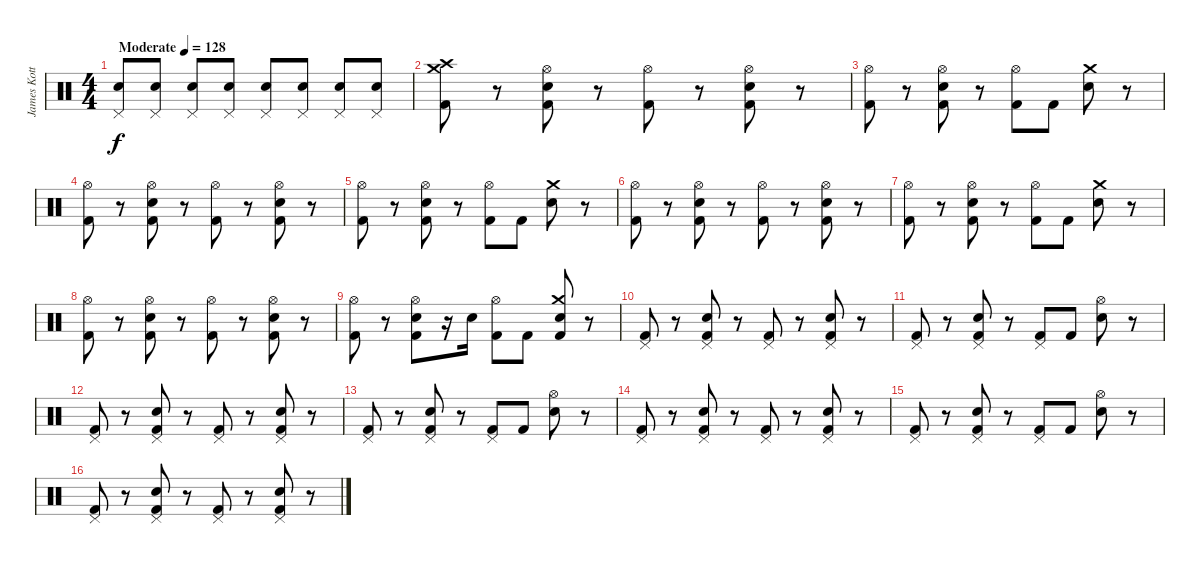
\track ("James Kottak" "James Kott") {instrument percussion}
\staff {score}
\articulation defaults
\ts (4 4)
\tempo (128 "Moderate")
\clef neutral
\ks c
("Pedal Hi-Hat (hit)" "Electric Snare (hit)").8{dy f} ("Pedal Hi-Hat (hit)" "Electric Snare (hit)").8 ("Pedal Hi-Hat (hit)" "Electric Snare (hit)").8 ("Pedal Hi-Hat (hit)" "Electric Snare (hit)").8 ("Pedal Hi-Hat (hit)" "Electric Snare (hit)").8 ("Pedal Hi-Hat (hit)" "Electric Snare (hit)").8 ("Pedal Hi-Hat (hit)" "Electric Snare (hit)").8 ("Pedal Hi-Hat (hit)" "Electric Snare (hit)").8 |
("Crash medium (hit)" "Crash high (hit)" "Kick (hit) 2").8 r.8 ("Hi-Hat (open)" "Electric Snare (hit)" "Kick (hit) 2").8 r.8 ("Hi-Hat (open)" "Kick (hit) 2").8 r.8 ("Hi-Hat (open)" "Electric Snare (hit)" "Kick (hit) 2").8 r.8 |
("Hi-Hat (open)" "Kick (hit) 2").8 r.8 ("Hi-Hat (open)" "Electric Snare (hit)" "Kick (hit) 2").8 r.8 ("Hi-Hat (open)" "Kick (hit) 2").8 "Kick (hit) 2".8 ("Crash medium (hit)" "Electric Snare (hit)").8 r.8 |
("Hi-Hat (open)" "Kick (hit) 2").8 r.8 ("Hi-Hat (open)" "Electric Snare (hit)" "Kick (hit) 2").8 r.8 ("Hi-Hat (open)" "Kick (hit) 2").8 r.8 ("Hi-Hat (open)" "Electric Snare (hit)" "Kick (hit) 2").8 r.8 |
("Hi-Hat (open)" "Kick (hit) 2").8 r.8 ("Hi-Hat (open)" "Electric Snare (hit)" "Kick (hit) 2").8 r.8 ("Hi-Hat (open)" "Kick (hit) 2").8 "Kick (hit) 2".8 ("Crash medium (hit)" "Electric Snare (hit)").8 r.8 |
("Hi-Hat (open)" "Kick (hit) 2").8 r.8 ("Hi-Hat (open)" "Electric Snare (hit)" "Kick (hit) 2").8 r.8 ("Hi-Hat (open)" "Kick (hit) 2").8 r.8 ("Hi-Hat (open)" "Electric Snare (hit)" "Kick (hit) 2").8 r.8 |
("Hi-Hat (open)" "Kick (hit) 2").8 r.8 ("Hi-Hat (open)" "Electric Snare (hit)" "Kick (hit) 2").8 r.8 ("Hi-Hat (open)" "Kick (hit) 2").8 "Kick (hit) 2".8 ("Crash medium (hit)" "Electric Snare (hit)").8 r.8 |
("Hi-Hat (open)" "Kick (hit) 2").8 r.8 ("Hi-Hat (open)" "Electric Snare (hit)" "Kick (hit) 2").8 r.8 ("Hi-Hat (open)" "Kick (hit) 2").8 r.8 ("Hi-Hat (open)" "Electric Snare (hit)" "Kick (hit) 2").8 r.8 |
("Hi-Hat (open)" "Kick (hit) 2").8 r.8 ("Hi-Hat (open)" "Electric Snare (hit)" "Kick (hit) 2").8 r.16 "Electric Snare (hit)".16 ("Hi-Hat (open)" "Kick (hit) 2").8 "Kick (hit) 2".8 ("Crash medium (hit)" "Electric Snare (hit)" "Kick (hit) 2").8 r.8 |
("Pedal Hi-Hat (hit)" "Kick (hit) 2").8 r.8 ("Pedal Hi-Hat (hit)" "Electric Snare (hit)" "Kick (hit) 2").8 r.8 ("Pedal Hi-Hat (hit)" "Kick (hit) 2").8 r.8 ("Pedal Hi-Hat (hit)" "Electric Snare (hit)" "Kick (hit) 2").8 r.8 |
("Pedal Hi-Hat (hit)" "Kick (hit) 2").8 r.8 ("Pedal Hi-Hat (hit)" "Electric Snare (hit)" "Kick (hit) 2").8 r.8 ("Pedal Hi-Hat (hit)" "Kick (hit) 2").8 "Kick (hit) 2".8 ("Hi-Hat (open)" "Electric Snare (hit)").8 r.8 |
("Pedal Hi-Hat (hit)" "Kick (hit) 2").8 r.8 ("Pedal Hi-Hat (hit)" "Electric Snare (hit)" "Kick (hit) 2").8 r.8 ("Pedal Hi-Hat (hit)" "Kick (hit) 2").8 r.8 ("Pedal Hi-Hat (hit)" "Electric Snare (hit)" "Kick (hit) 2").8 r.8 |
("Pedal Hi-Hat (hit)" "Kick (hit) 2").8 r.8 ("Pedal Hi-Hat (hit)" "Electric Snare (hit)" "Kick (hit) 2").8 r.8 ("Pedal Hi-Hat (hit)" "Kick (hit) 2").8 "Kick (hit) 2".8 ("Hi-Hat (open)" "Electric Snare (hit)").8 r.8 |
("Pedal Hi-Hat (hit)" "Kick (hit) 2").8 r.8 ("Pedal Hi-Hat (hit)" "Electric Snare (hit)" "Kick (hit) 2").8 r.8 ("Pedal Hi-Hat (hit)" "Kick (hit) 2").8 r.8 ("Pedal Hi-Hat (hit)" "Electric Snare (hit)" "Kick (hit) 2").8 r.8 |
("Pedal Hi-Hat (hit)" "Kick (hit) 2").8 r.8 ("Pedal Hi-Hat (hit)" "Electric Snare (hit)" "Kick (hit) 2").8 r.8 ("Pedal Hi-Hat (hit)" "Kick (hit) 2").8 "Kick (hit) 2".8 ("Hi-Hat (open)" "Electric Snare (hit)").8 r.8 |
("Pedal Hi-Hat (hit)" "Kick (hit) 2").8 r.8 ("Pedal Hi-Hat (hit)" "Electric Snare (hit)" "Kick (hit) 2").8 r.8 ("Pedal Hi-Hat (hit)" "Kick (hit) 2").8 r.8 ("Pedal Hi-Hat (hit)" "Electric Snare (hit)" "Kick (hit) 2").8 r.8
